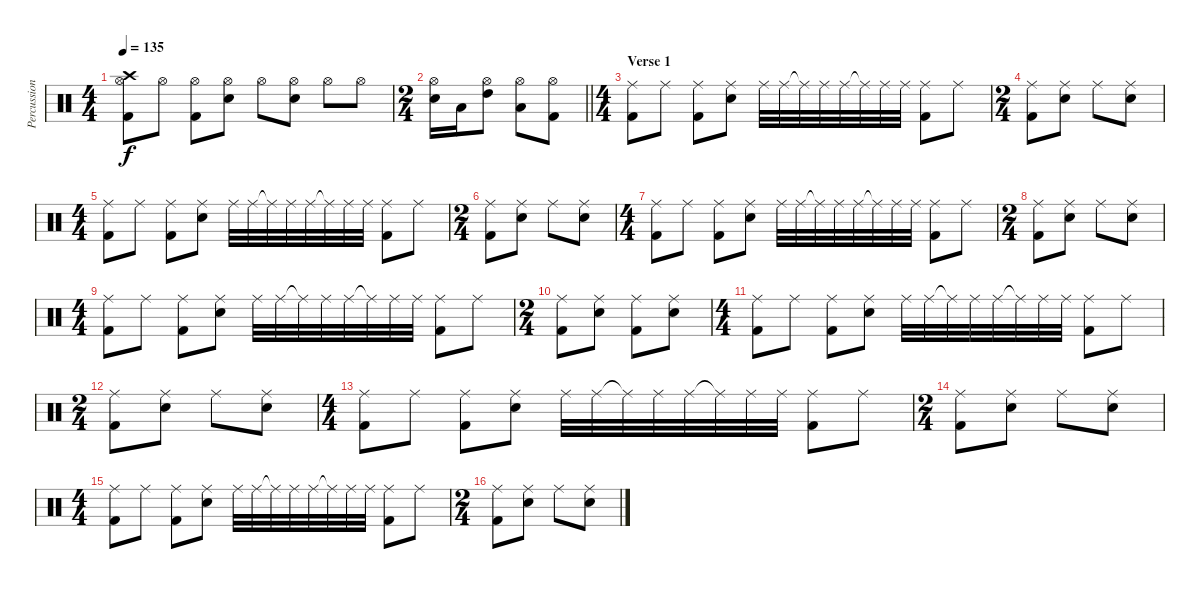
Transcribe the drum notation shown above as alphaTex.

\track ("Percussion" "Percussion") {instrument percussion}
\staff {score}
\articulation defaults
\ts (4 4)
\tempo 135
\clef neutral
\ks c
("Crash high (hit)" "Hi-Hat (open)" "Kick (hit) 2").8{dy f} "Hi-Hat (open)".8 ("Hi-Hat (open)" "Kick (hit) 2").8 ("Hi-Hat (open)" "Electric Snare (hit)").8 "Hi-Hat (open)".8 ("Hi-Hat (open)" "Electric Snare (hit)").8 "Hi-Hat (open)".8 "Hi-Hat (open)".8 |
\ts (2 4)
\barLineRight lightlight
("Hi-Hat (open)" "Electric Snare (hit)").16 "Low Tom (hit)".16 ("Hi-Hat (open)" "High Tom (hit)").8 ("Hi-Hat (open)" "Low Floor Tom (hit)").8 ("Hi-Hat (open)" "Kick (hit) 2").8 |
\ts (4 4)
\section ("" "Verse 1")
("Ride (middle)" "Kick (hit) 2").8 "Ride (middle)".8 ("Ride (middle)" "Kick (hit) 2").8 ("Ride (middle)" "Electric Snare (hit)").8 "Ride (middle)".32 "Ride (middle)".32 "Ride (middle)"{t}.32 "Ride (middle)".32 "Ride (middle)".32 "Ride (middle)"{t}.32 "Ride (middle)".32 "Ride (middle)".32 ("Ride (middle)" "Kick (hit) 2").8 "Ride (middle)".8 |
\ts (2 4)
("Ride (middle)" "Kick (hit) 2").8 ("Ride (middle)" "Electric Snare (hit)").8 "Ride (middle)".8 ("Ride (middle)" "Electric Snare (hit)").8 |
\ts (4 4)
("Ride (middle)" "Kick (hit) 2").8 "Ride (middle)".8 ("Ride (middle)" "Kick (hit) 2").8 ("Ride (middle)" "Electric Snare (hit)").8 "Ride (middle)".32 "Ride (middle)".32 "Ride (middle)"{t}.32 "Ride (middle)".32 "Ride (middle)".32 "Ride (middle)"{t}.32 "Ride (middle)".32 "Ride (middle)".32 ("Ride (middle)" "Kick (hit) 2").8 "Ride (middle)".8 |
\ts (2 4)
("Ride (middle)" "Kick (hit) 2").8 ("Ride (middle)" "Electric Snare (hit)").8 "Ride (middle)".8 ("Ride (middle)" "Electric Snare (hit)").8 |
\ts (4 4)
("Ride (middle)" "Kick (hit) 2").8 "Ride (middle)".8 ("Ride (middle)" "Kick (hit) 2").8 ("Ride (middle)" "Electric Snare (hit)").8 "Ride (middle)".32 "Ride (middle)".32 "Ride (middle)"{t}.32 "Ride (middle)".32 "Ride (middle)".32 "Ride (middle)"{t}.32 "Ride (middle)".32 "Ride (middle)".32 ("Ride (middle)" "Kick (hit) 2").8 "Ride (middle)".8 |
\ts (2 4)
("Ride (middle)" "Kick (hit) 2").8 ("Ride (middle)" "Electric Snare (hit)").8 "Ride (middle)".8 ("Ride (middle)" "Electric Snare (hit)").8 |
\ts (4 4)
("Ride (middle)" "Kick (hit) 2").8 "Ride (middle)".8 ("Ride (middle)" "Kick (hit) 2").8 ("Ride (middle)" "Electric Snare (hit)").8 "Ride (middle)".32 "Ride (middle)".32 "Ride (middle)"{t}.32 "Ride (middle)".32 "Ride (middle)".32 "Ride (middle)"{t}.32 "Ride (middle)".32 "Ride (middle)".32 ("Ride (middle)" "Kick (hit) 2").8 "Ride (middle)".8 |
\ts (2 4)
("Ride (middle)" "Kick (hit) 2").8 ("Ride (middle)" "Electric Snare (hit)").8 ("Ride (middle)" "Kick (hit) 2").8 ("Ride (middle)" "Electric Snare (hit)").8 |
\ts (4 4)
("Ride (middle)" "Kick (hit) 2").8 "Ride (middle)".8 ("Ride (middle)" "Kick (hit) 2").8 ("Ride (middle)" "Electric Snare (hit)").8 "Ride (middle)".32 "Ride (middle)".32 "Ride (middle)"{t}.32 "Ride (middle)".32 "Ride (middle)".32 "Ride (middle)"{t}.32 "Ride (middle)".32 "Ride (middle)".32 ("Ride (middle)" "Kick (hit) 2").8 "Ride (middle)".8 |
\ts (2 4)
("Ride (middle)" "Kick (hit) 2").8 ("Ride (middle)" "Electric Snare (hit)").8 "Ride (middle)".8 ("Ride (middle)" "Electric Snare (hit)").8 |
\ts (4 4)
("Ride (middle)" "Kick (hit) 2").8 "Ride (middle)".8 ("Ride (middle)" "Kick (hit) 2").8 ("Ride (middle)" "Electric Snare (hit)").8 "Ride (middle)".32 "Ride (middle)".32 "Ride (middle)"{t}.32 "Ride (middle)".32 "Ride (middle)".32 "Ride (middle)"{t}.32 "Ride (middle)".32 "Ride (middle)".32 ("Ride (middle)" "Kick (hit) 2").8 "Ride (middle)".8 |
\ts (2 4)
("Ride (middle)" "Kick (hit) 2").8 ("Ride (middle)" "Electric Snare (hit)").8 "Ride (middle)".8 ("Ride (middle)" "Electric Snare (hit)").8 |
\ts (4 4)
("Ride (middle)" "Kick (hit) 2").8 "Ride (middle)".8 ("Ride (middle)" "Kick (hit) 2").8 ("Ride (middle)" "Electric Snare (hit)").8 "Ride (middle)".32 "Ride (middle)".32 "Ride (middle)"{t}.32 "Ride (middle)".32 "Ride (middle)".32 "Ride (middle)"{t}.32 "Ride (middle)".32 "Ride (middle)".32 ("Ride (middle)" "Kick (hit) 2").8 "Ride (middle)".8 |
\ts (2 4)
("Ride (middle)" "Kick (hit) 2").8 ("Ride (middle)" "Electric Snare (hit)").8 "Ride (middle)".8 ("Ride (middle)" "Electric Snare (hit)").8
